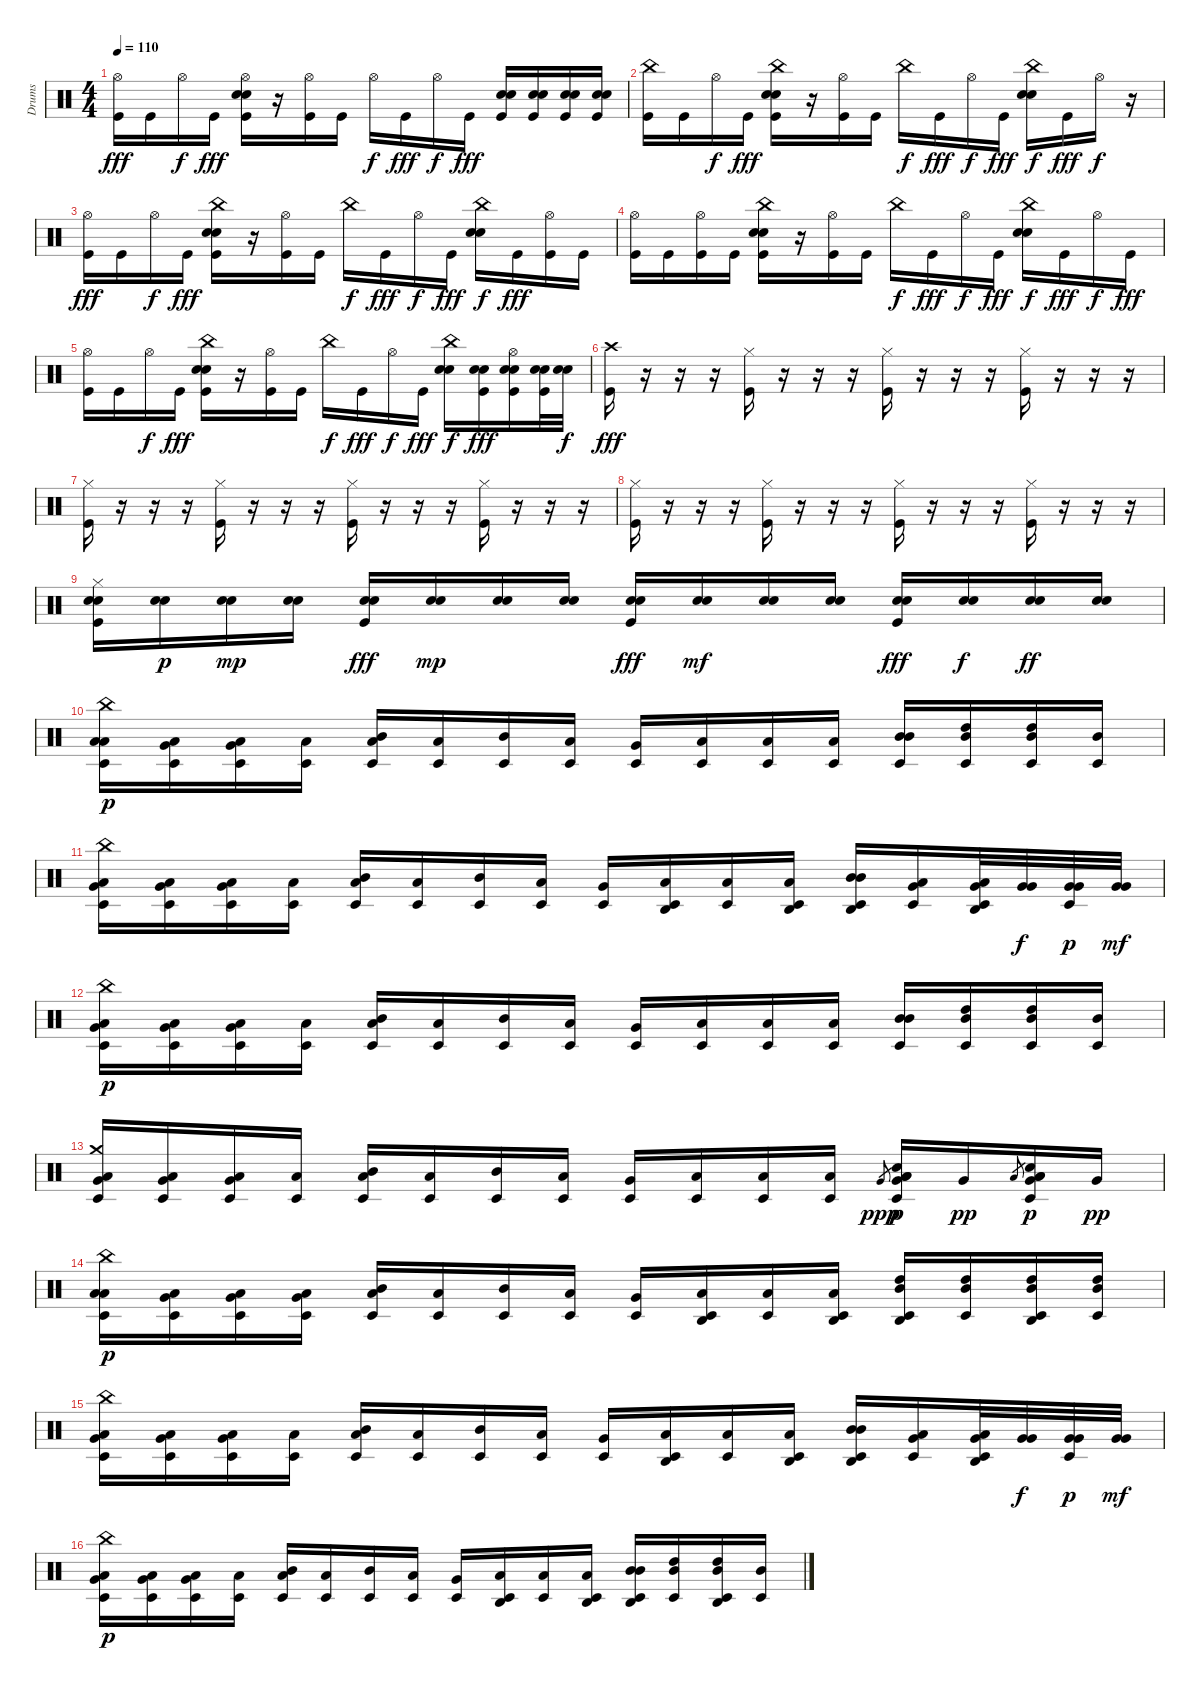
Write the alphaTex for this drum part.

\track ("Drums" "Drums") {instrument percussion}
\staff {score}
\articulation defaults
\ts (4 4)
\tempo 110
\clef neutral
\ks c
("Hi-Hat (open)" "Kick (hit)").16{dy fff} "Kick (hit)".16 "Hi-Hat (open)".16{dy f} "Kick (hit)".16{dy fff} ("Hi-Hat (open)" "Electric Snare (hit)" "Snare (hit) 2" "Kick (hit)").16 r.16 ("Hi-Hat (open)" "Kick (hit)").16 "Kick (hit)".16 "Hi-Hat (open)".16{dy f} "Kick (hit)".16{dy fff} "Hi-Hat (open)".16{dy f} "Kick (hit)".16{dy fff} ("Snare (hit) 2" "Electric Snare (hit)" "Kick (hit)").16 ("Snare (hit) 2" "Electric Snare (hit)" "Kick (hit)").16 ("Snare (hit) 2" "Electric Snare (hit)" "Kick (hit)").16 ("Snare (hit) 2" "Electric Snare (hit)" "Kick (hit)").16 |
("China (hit)" "Kick (hit)").16 "Kick (hit)".16 "Hi-Hat (open)".16{dy f} "Kick (hit)".16{dy fff} ("China (hit)" "Electric Snare (hit)" "Snare (hit) 2" "Kick (hit)").16 r.16 ("Hi-Hat (open)" "Kick (hit)").16 "Kick (hit)".16 "China (hit)".16{dy f} "Kick (hit)".16{dy fff} "Hi-Hat (open)".16{dy f} "Kick (hit)".16{dy fff} ("China (hit)" "Snare (hit) 2" "Electric Snare (hit)").16{dy f} "Kick (hit)".16{dy fff} "Hi-Hat (open)".16{dy f} r.16 |
("Hi-Hat (open)" "Kick (hit)").16{dy fff} "Kick (hit)".16 "Hi-Hat (open)".16{dy f} "Kick (hit)".16{dy fff} ("China (hit)" "Electric Snare (hit)" "Snare (hit) 2" "Kick (hit)").16 r.16 ("Hi-Hat (open)" "Kick (hit)").16 "Kick (hit)".16 "China (hit)".16{dy f} "Kick (hit)".16{dy fff} "Hi-Hat (open)".16{dy f} "Kick (hit)".16{dy fff} ("China (hit)" "Snare (hit) 2" "Electric Snare (hit)").16{dy f} "Kick (hit)".16{dy fff} ("Hi-Hat (open)" "Kick (hit)").16 "Kick (hit)".16 |
("Hi-Hat (open)" "Kick (hit)").16 "Kick (hit)".16 ("Hi-Hat (open)" "Kick (hit)").16 "Kick (hit)".16 ("China (hit)" "Electric Snare (hit)" "Snare (hit) 2" "Kick (hit)").16 r.16 ("Hi-Hat (open)" "Kick (hit)").16 "Kick (hit)".16 "China (hit)".16{dy f} "Kick (hit)".16{dy fff} "Hi-Hat (open)".16{dy f} "Kick (hit)".16{dy fff} ("China (hit)" "Snare (hit) 2" "Electric Snare (hit)").16{dy f} "Kick (hit)".16{dy fff} "Hi-Hat (open)".16{dy f} "Kick (hit)".16{dy fff} |
("Hi-Hat (open)" "Kick (hit)").16 "Kick (hit)".16 "Hi-Hat (open)".16{dy f} "Kick (hit)".16{dy fff} ("China (hit)" "Electric Snare (hit)" "Snare (hit) 2" "Kick (hit)").16 r.16 ("Hi-Hat (open)" "Kick (hit)").16 "Kick (hit)".16 "China (hit)".16{dy f} "Kick (hit)".16{dy fff} "Hi-Hat (open)".16{dy f} "Kick (hit)".16{dy fff} ("China (hit)" "Snare (hit) 2" "Electric Snare (hit)").16{dy f} ("Snare (hit) 2" "Electric Snare (hit)" "Kick (hit)").16{dy fff} ("Hi-Hat (open)" "Snare (hit) 2" "Electric Snare (hit)" "Kick (hit)").16 ("Snare (hit) 2" "Electric Snare (hit)" "Kick (hit)").32 ("Snare (hit) 2" "Electric Snare (hit)").32{dy f} |
("Crash high (hit)" "Kick (hit)").16{dy fff} r.16 r.16 r.16 ("Hi-Hat (closed)" "Kick (hit)").16 r.16 r.16 r.16 ("Hi-Hat (closed)" "Kick (hit)").16 r.16 r.16 r.16 ("Hi-Hat (closed)" "Kick (hit)").16 r.16 r.16 r.16 |
("Hi-Hat (closed)" "Kick (hit)").16 r.16 r.16 r.16 ("Hi-Hat (closed)" "Kick (hit)").16 r.16 r.16 r.16 ("Hi-Hat (closed)" "Kick (hit)").16 r.16 r.16 r.16 ("Hi-Hat (closed)" "Kick (hit)").16 r.16 r.16 r.16 |
("Hi-Hat (closed)" "Kick (hit)").16 r.16 r.16 r.16 ("Hi-Hat (closed)" "Kick (hit)").16 r.16 r.16 r.16 ("Hi-Hat (closed)" "Kick (hit)").16 r.16 r.16 r.16 ("Hi-Hat (closed)" "Kick (hit)").16 r.16 r.16 r.16 |
("Hi-Hat (closed)" "Snare (hit) 2" "Electric Snare (hit)" "Kick (hit)").16 ("Snare (hit) 2" "Electric Snare (hit)").16{dy p} ("Snare (hit) 2" "Electric Snare (hit)").16{dy mp} ("Snare (hit) 2" "Electric Snare (hit)").16 ("Snare (hit) 2" "Electric Snare (hit)" "Kick (hit)").16{dy fff} ("Snare (hit) 2" "Electric Snare (hit)").16{dy mp} ("Snare (hit) 2" "Electric Snare (hit)").16 ("Snare (hit) 2" "Electric Snare (hit)").16 ("Snare (hit) 2" "Electric Snare (hit)" "Kick (hit)").16{dy fff} ("Snare (hit) 2" "Electric Snare (hit)").16{dy mf} ("Snare (hit) 2" "Electric Snare (hit)").16 ("Snare (hit) 2" "Electric Snare (hit)").16 ("Snare (hit) 2" "Electric Snare (hit)" "Kick (hit)").16{dy fff} ("Snare (hit) 2" "Electric Snare (hit)").16{dy f} ("Snare (hit) 2" "Electric Snare (hit)").16{dy ff} ("Snare (hit) 2" "Electric Snare (hit)").16 |
("China (hit)" "Low Floor Tom (hit)" "Low Tom (hit)" "Timbale low (hit)").16{dy p} ("Low Floor Tom (hit)" "Very Low Tom (hit)" "Timbale low (hit)").16 ("Low Floor Tom (hit)" "Very Low Tom (hit)" "Timbale low (hit)").16 ("Low Floor Tom (hit)" "Timbale low (hit)").16 ("Low Floor Tom (hit)" "Mid Tom (hit)" "Timbale low (hit)").16 ("Low Floor Tom (hit)" "Timbale low (hit)").16 ("Mid Tom (hit)" "Timbale low (hit)").16 ("Low Tom (hit)" "Timbale low (hit)").16 ("Very Low Tom (hit)" "Timbale low (hit)").16 ("Low Tom (hit)" "Timbale low (hit)").16 ("Low Tom (hit)" "Timbale low (hit)").16 ("Low Tom (hit)" "Timbale low (hit)").16 ("Mid Tom (hit)" "Mid Tom (hit)" "Timbale low (hit)").16 ("High Tom (hit)" "Mid Tom (hit)" "Timbale low (hit)").16 ("High Tom (hit)" "Mid Tom (hit)" "Timbale low (hit)").16 ("Mid Tom (hit)" "Timbale low (hit)").16 |
("China (hit)" "Low Floor Tom (hit)" "Very Low Tom (hit)" "Timbale low (hit)").16 ("Low Floor Tom (hit)" "Very Low Tom (hit)" "Timbale low (hit)").16 ("Low Floor Tom (hit)" "Very Low Tom (hit)" "Timbale low (hit)").16 ("Low Floor Tom (hit)" "Timbale low (hit)").16 ("Low Floor Tom (hit)" "Mid Tom (hit)" "Timbale low (hit)").16 ("Low Floor Tom (hit)" "Timbale low (hit)").16 ("Mid Tom (hit)" "Timbale low (hit)").16 ("Low Tom (hit)" "Timbale low (hit)").16 ("Very Low Tom (hit)" "Timbale low (hit)").16 ("Agogo high (hit)" "Low Tom (hit)" "Timbale low (hit)").16 ("Low Tom (hit)" "Timbale low (hit)").16 ("Agogo high (hit)" "Low Tom (hit)" "Timbale low (hit)").16 ("Agogo high (hit)" "Mid Tom (hit)" "Mid Tom (hit)" "Timbale low (hit)").16 ("Low Floor Tom (hit)" "Very Low Tom (hit)" "Timbale low (hit)").16 ("Agogo high (hit)" "Low Floor Tom (hit)" "Very Low Tom (hit)" "Timbale low (hit)").32 ("Very Low Tom (hit)" "Very Low Tom (hit)").32{dy f} ("Very Low Tom (hit)" "Very Low Tom (hit)" "Timbale low (hit)").32{dy p} ("Very Low Tom (hit)" "Very Low Tom (hit)").32{dy mf} |
("China (hit)" "Low Floor Tom (hit)" "Very Low Tom (hit)" "Timbale low (hit)").16{dy p} ("Low Floor Tom (hit)" "Very Low Tom (hit)" "Timbale low (hit)").16 ("Low Floor Tom (hit)" "Very Low Tom (hit)" "Timbale low (hit)").16 ("Low Floor Tom (hit)" "Timbale low (hit)").16 ("Low Floor Tom (hit)" "Mid Tom (hit)" "Timbale low (hit)").16 ("Low Floor Tom (hit)" "Timbale low (hit)").16 ("Mid Tom (hit)" "Timbale low (hit)").16 ("Low Tom (hit)" "Timbale low (hit)").16 ("Very Low Tom (hit)" "Timbale low (hit)").16 ("Low Tom (hit)" "Timbale low (hit)").16 ("Low Tom (hit)" "Timbale low (hit)").16 ("Low Tom (hit)" "Timbale low (hit)").16 ("Mid Tom (hit)" "Mid Tom (hit)" "Timbale low (hit)").16 ("High Tom (hit)" "Mid Tom (hit)" "Timbale low (hit)").16 ("High Tom (hit)" "Mid Tom (hit)" "Timbale low (hit)").16 ("Mid Tom (hit)" "Timbale low (hit)").16 |
("Crash medium (hit)" "Low Floor Tom (hit)" "Very Low Tom (hit)" "Timbale low (hit)").16 ("Low Floor Tom (hit)" "Very Low Tom (hit)" "Timbale low (hit)").16 ("Low Floor Tom (hit)" "Very Low Tom (hit)" "Timbale low (hit)").16 ("Low Floor Tom (hit)" "Timbale low (hit)").16 ("Low Floor Tom (hit)" "Mid Tom (hit)" "Timbale low (hit)").16 ("Low Floor Tom (hit)" "Timbale low (hit)").16 ("Mid Tom (hit)" "Timbale low (hit)").16 ("Low Tom (hit)" "Timbale low (hit)").16 ("Very Low Tom (hit)" "Timbale low (hit)").16 ("Low Tom (hit)" "Timbale low (hit)").16 ("Low Tom (hit)" "Timbale low (hit)").16 ("Low Tom (hit)" "Timbale low (hit)").16 "Very Low Tom (hit)"{h}.8{gr dy ppp} ("Snare (hit) 2" "Low Tom (hit)" "Low Floor Tom (hit)" "Very Low Tom (hit)" "Timbale low (hit)").16{dy p} "Very Low Tom (hit)".16{dy pp} "Low Floor Tom (hit)".8{gr} ("Snare (hit) 2" "Low Tom (hit)" "Very Low Tom (hit)" "Low Floor Tom (hit)" "Timbale low (hit)").16{dy p} "Very Low Tom (hit)".16{dy pp} |
("China (hit)" "Low Floor Tom (hit)" "Low Tom (hit)" "Timbale low (hit)").16{dy p} ("Low Floor Tom (hit)" "Very Low Tom (hit)" "Timbale low (hit)").16 ("Low Floor Tom (hit)" "Very Low Tom (hit)" "Timbale low (hit)").16 ("Low Floor Tom (hit)" "Very Low Tom (hit)" "Timbale low (hit)").16 ("Low Floor Tom (hit)" "Mid Tom (hit)" "Timbale low (hit)").16 ("Low Floor Tom (hit)" "Timbale low (hit)").16 ("Mid Tom (hit)" "Timbale low (hit)").16 ("Low Tom (hit)" "Timbale low (hit)").16 ("Very Low Tom (hit)" "Timbale low (hit)").16 ("Agogo high (hit)" "Low Tom (hit)" "Timbale low (hit)").16 ("Low Tom (hit)" "Timbale low (hit)").16 ("Agogo high (hit)" "Low Tom (hit)" "Timbale low (hit)").16 ("Agogo high (hit)" "High Tom (hit)" "Mid Tom (hit)" "Timbale low (hit)").16 ("High Tom (hit)" "Mid Tom (hit)" "Timbale low (hit)").16 ("Agogo high (hit)" "High Tom (hit)" "Mid Tom (hit)" "Timbale low (hit)").16 ("High Tom (hit)" "Mid Tom (hit)" "Timbale low (hit)").16 |
("China (hit)" "Low Floor Tom (hit)" "Very Low Tom (hit)" "Timbale low (hit)").16 ("Low Floor Tom (hit)" "Very Low Tom (hit)" "Timbale low (hit)").16 ("Low Floor Tom (hit)" "Very Low Tom (hit)" "Timbale low (hit)").16 ("Low Floor Tom (hit)" "Timbale low (hit)").16 ("Low Floor Tom (hit)" "Mid Tom (hit)" "Timbale low (hit)").16 ("Low Floor Tom (hit)" "Timbale low (hit)").16 ("Mid Tom (hit)" "Timbale low (hit)").16 ("Low Tom (hit)" "Timbale low (hit)").16 ("Very Low Tom (hit)" "Timbale low (hit)").16 ("Agogo high (hit)" "Low Tom (hit)" "Timbale low (hit)").16 ("Low Tom (hit)" "Timbale low (hit)").16 ("Agogo high (hit)" "Low Tom (hit)" "Timbale low (hit)").16 ("Agogo high (hit)" "Mid Tom (hit)" "Mid Tom (hit)" "Timbale low (hit)").16 ("Low Floor Tom (hit)" "Very Low Tom (hit)" "Timbale low (hit)").16 ("Agogo high (hit)" "Low Floor Tom (hit)" "Very Low Tom (hit)" "Timbale low (hit)").32 ("Very Low Tom (hit)" "Very Low Tom (hit)").32{dy f} ("Very Low Tom (hit)" "Very Low Tom (hit)" "Timbale low (hit)").32{dy p} ("Very Low Tom (hit)" "Very Low Tom (hit)").32{dy mf} |
("China (hit)" "Low Floor Tom (hit)" "Very Low Tom (hit)" "Timbale low (hit)").16{dy p} ("Low Floor Tom (hit)" "Very Low Tom (hit)" "Timbale low (hit)").16 ("Low Floor Tom (hit)" "Very Low Tom (hit)" "Timbale low (hit)").16 ("Low Floor Tom (hit)" "Timbale low (hit)").16 ("Low Floor Tom (hit)" "Mid Tom (hit)" "Timbale low (hit)").16 ("Low Floor Tom (hit)" "Timbale low (hit)").16 ("Mid Tom (hit)" "Timbale low (hit)").16 ("Low Tom (hit)" "Timbale low (hit)").16 ("Very Low Tom (hit)" "Timbale low (hit)").16 ("Agogo high (hit)" "Low Tom (hit)" "Timbale low (hit)").16 ("Low Tom (hit)" "Timbale low (hit)").16 ("Agogo high (hit)" "Low Tom (hit)" "Timbale low (hit)").16 ("Agogo high (hit)" "Mid Tom (hit)" "Mid Tom (hit)" "Timbale low (hit)").16 ("High Tom (hit)" "Mid Tom (hit)" "Timbale low (hit)").16 ("Agogo high (hit)" "High Tom (hit)" "Mid Tom (hit)" "Timbale low (hit)").16 ("Mid Tom (hit)" "Timbale low (hit)").16
